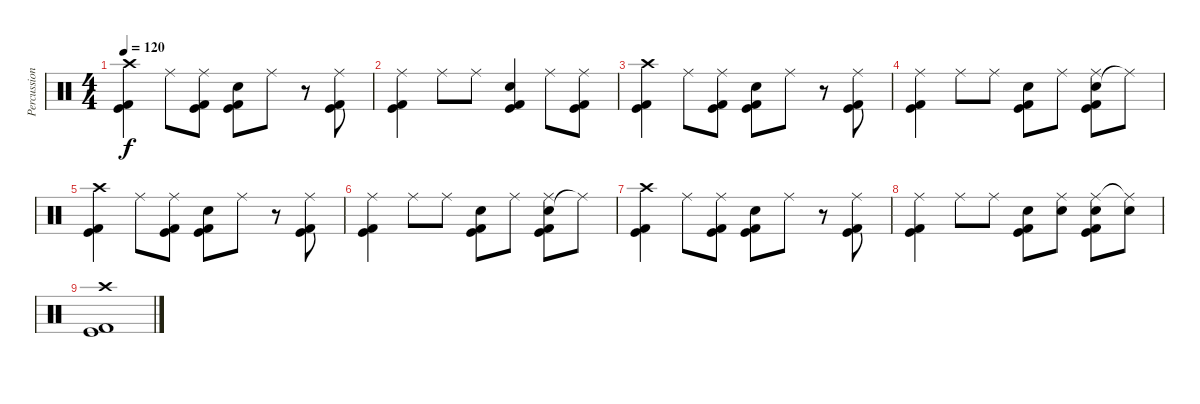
\track ("Percussion" "Percussion") {instrument percussion}
\staff {score}
\articulation defaults
\ts (4 4)
\tempo 120
\clef neutral
\ks c
("Crash high (hit)" "Kick (hit)" "Kick (hit) 2").4{dy f} "Ride (middle)".8 ("Ride (middle)" "Kick (hit)" "Kick (hit) 2").8 ("Electric Snare (hit)" "Kick (hit)" "Kick (hit) 2").8 "Ride (middle)".8 r.8 ("Ride (middle)" "Kick (hit)" "Kick (hit) 2").8 |
("Ride (middle)" "Kick (hit)" "Kick (hit) 2").4 "Ride (middle)".8 "Ride (middle)".8 ("Electric Snare (hit)" "Kick (hit)" "Kick (hit) 2").4 "Ride (middle)".8 ("Ride (middle)" "Kick (hit)" "Kick (hit) 2").8 |
("Crash high (hit)" "Kick (hit)" "Kick (hit) 2").4 "Ride (middle)".8 ("Ride (middle)" "Kick (hit)" "Kick (hit) 2").8 ("Electric Snare (hit)" "Kick (hit)" "Kick (hit) 2").8 "Ride (middle)".8 r.8 ("Ride (middle)" "Kick (hit)" "Kick (hit) 2").8 |
("Ride (middle)" "Kick (hit)" "Kick (hit) 2").4 "Ride (middle)".8 "Ride (middle)".8 ("Electric Snare (hit)" "Kick (hit)" "Kick (hit) 2").8 "Ride (middle)".8 ("Electric Snare (hit)" "Ride (middle)" "Kick (hit)" "Kick (hit) 2").8 "Ride (middle)"{t}.8 |
("Crash high (hit)" "Kick (hit)" "Kick (hit) 2").4 "Ride (middle)".8 ("Ride (middle)" "Kick (hit)" "Kick (hit) 2").8 ("Electric Snare (hit)" "Kick (hit)" "Kick (hit) 2").8 "Ride (middle)".8 r.8 ("Ride (middle)" "Kick (hit)" "Kick (hit) 2").8 |
("Ride (middle)" "Kick (hit)" "Kick (hit) 2").4 "Ride (middle)".8 "Ride (middle)".8 ("Electric Snare (hit)" "Kick (hit)" "Kick (hit) 2").8 "Ride (middle)".8 ("Electric Snare (hit)" "Ride (middle)" "Kick (hit)" "Kick (hit) 2").8 "Ride (middle)"{t}.8 |
("Crash high (hit)" "Kick (hit)" "Kick (hit) 2").4 "Ride (middle)".8 ("Ride (middle)" "Kick (hit)" "Kick (hit) 2").8 ("Electric Snare (hit)" "Kick (hit)" "Kick (hit) 2").8 "Ride (middle)".8 r.8 ("Ride (middle)" "Kick (hit)" "Kick (hit) 2").8 |
("Ride (middle)" "Kick (hit)" "Kick (hit) 2").4 "Ride (middle)".8 "Ride (middle)".8 ("Electric Snare (hit)" "Kick (hit)" "Kick (hit) 2").8 ("Electric Snare (hit)" "Ride (middle)").8 ("Electric Snare (hit)" "Ride (middle)" "Kick (hit)" "Kick (hit) 2").8 ("Electric Snare (hit)" "Ride (middle)"{t}).8 |
("Crash high (hit)" "Kick (hit)" "Kick (hit) 2").1
